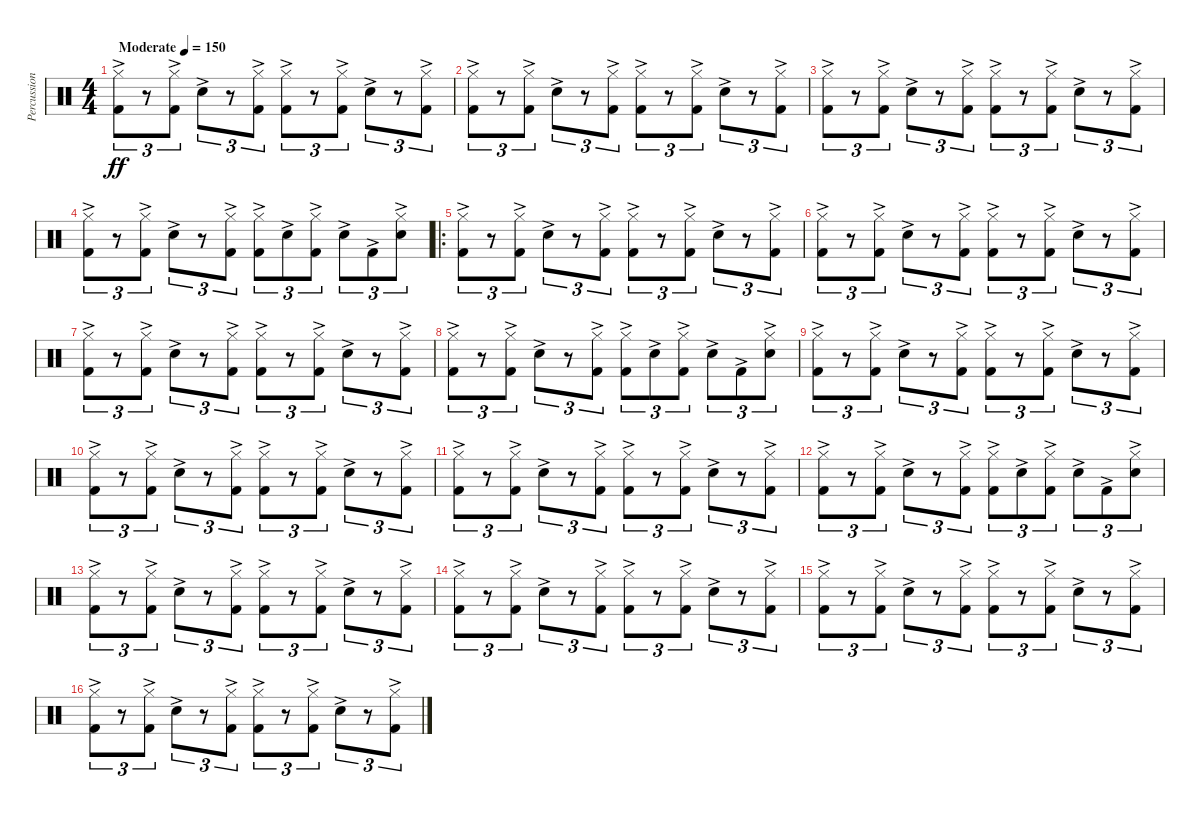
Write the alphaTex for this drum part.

\track ("Percussion" "Percussion") {instrument percussion}
\staff {score}
\articulation defaults
\ts (4 4)
\tempo (150 "Moderate")
\clef neutral
\ks c
("Hi-Hat (closed)"{ac} "Kick (hit) 2"{ac}).8{tu (3 2) dy ff} r.8{tu (3 2)} ("Hi-Hat (closed)"{ac} "Kick (hit) 2"{ac}).8{tu (3 2)} "Snare (hit) 2"{ac}.8{tu (3 2)} r.8{tu (3 2)} ("Hi-Hat (closed)"{ac} "Kick (hit) 2"{ac}).8{tu (3 2)} ("Hi-Hat (closed)"{ac} "Kick (hit) 2"{ac}).8{tu (3 2)} r.8{tu (3 2)} ("Hi-Hat (closed)"{ac} "Kick (hit) 2"{ac}).8{tu (3 2)} "Snare (hit) 2"{ac}.8{tu (3 2)} r.8{tu (3 2)} ("Hi-Hat (closed)"{ac} "Kick (hit) 2"{ac}).8{tu (3 2)} |
("Hi-Hat (closed)"{ac} "Kick (hit) 2"{ac}).8{tu (3 2)} r.8{tu (3 2)} ("Hi-Hat (closed)"{ac} "Kick (hit) 2"{ac}).8{tu (3 2)} "Snare (hit) 2"{ac}.8{tu (3 2)} r.8{tu (3 2)} ("Hi-Hat (closed)"{ac} "Kick (hit) 2"{ac}).8{tu (3 2)} ("Hi-Hat (closed)"{ac} "Kick (hit) 2"{ac}).8{tu (3 2)} r.8{tu (3 2)} ("Hi-Hat (closed)"{ac} "Kick (hit) 2"{ac}).8{tu (3 2)} "Snare (hit) 2"{ac}.8{tu (3 2)} r.8{tu (3 2)} ("Hi-Hat (closed)"{ac} "Kick (hit) 2"{ac}).8{tu (3 2)} |
("Hi-Hat (closed)"{ac} "Kick (hit) 2"{ac}).8{tu (3 2)} r.8{tu (3 2)} ("Hi-Hat (closed)"{ac} "Kick (hit) 2"{ac}).8{tu (3 2)} "Snare (hit) 2"{ac}.8{tu (3 2)} r.8{tu (3 2)} ("Hi-Hat (closed)"{ac} "Kick (hit) 2"{ac}).8{tu (3 2)} ("Hi-Hat (closed)"{ac} "Kick (hit) 2"{ac}).8{tu (3 2)} r.8{tu (3 2)} ("Hi-Hat (closed)"{ac} "Kick (hit) 2"{ac}).8{tu (3 2)} "Snare (hit) 2"{ac}.8{tu (3 2)} r.8{tu (3 2)} ("Hi-Hat (closed)"{ac} "Kick (hit) 2"{ac}).8{tu (3 2)} |
("Hi-Hat (closed)"{ac} "Kick (hit) 2"{ac}).8{tu (3 2)} r.8{tu (3 2)} ("Hi-Hat (closed)"{ac} "Kick (hit) 2"{ac}).8{tu (3 2)} "Snare (hit) 2"{ac}.8{tu (3 2)} r.8{tu (3 2)} ("Hi-Hat (closed)"{ac} "Kick (hit) 2"{ac}).8{tu (3 2)} ("Hi-Hat (closed)"{ac} "Kick (hit) 2"{ac}).8{tu (3 2)} "Snare (hit) 2"{ac}.8{tu (3 2)} ("Hi-Hat (closed)"{ac} "Kick (hit) 2"{ac}).8{tu (3 2)} "Snare (hit) 2"{ac}.8{tu (3 2)} "Kick (hit) 2"{ac}.8{tu (3 2)} ("Hi-Hat (closed)"{ac} "Snare (hit) 2"{ac}).8{tu (3 2)} |
\ro
("Hi-Hat (closed)"{ac} "Kick (hit) 2"{ac}).8{tu (3 2)} r.8{tu (3 2)} ("Hi-Hat (closed)"{ac} "Kick (hit) 2"{ac}).8{tu (3 2)} "Snare (hit) 2"{ac}.8{tu (3 2)} r.8{tu (3 2)} ("Hi-Hat (closed)"{ac} "Kick (hit) 2"{ac}).8{tu (3 2)} ("Hi-Hat (closed)"{ac} "Kick (hit) 2"{ac}).8{tu (3 2)} r.8{tu (3 2)} ("Hi-Hat (closed)"{ac} "Kick (hit) 2"{ac}).8{tu (3 2)} "Snare (hit) 2"{ac}.8{tu (3 2)} r.8{tu (3 2)} ("Hi-Hat (closed)"{ac} "Kick (hit) 2"{ac}).8{tu (3 2)} |
("Hi-Hat (closed)"{ac} "Kick (hit) 2"{ac}).8{tu (3 2)} r.8{tu (3 2)} ("Hi-Hat (closed)"{ac} "Kick (hit) 2"{ac}).8{tu (3 2)} "Snare (hit) 2"{ac}.8{tu (3 2)} r.8{tu (3 2)} ("Hi-Hat (closed)"{ac} "Kick (hit) 2"{ac}).8{tu (3 2)} ("Hi-Hat (closed)"{ac} "Kick (hit) 2"{ac}).8{tu (3 2)} r.8{tu (3 2)} ("Hi-Hat (closed)"{ac} "Kick (hit) 2"{ac}).8{tu (3 2)} "Snare (hit) 2"{ac}.8{tu (3 2)} r.8{tu (3 2)} ("Hi-Hat (closed)"{ac} "Kick (hit) 2"{ac}).8{tu (3 2)} |
("Hi-Hat (closed)"{ac} "Kick (hit) 2"{ac}).8{tu (3 2)} r.8{tu (3 2)} ("Hi-Hat (closed)"{ac} "Kick (hit) 2"{ac}).8{tu (3 2)} "Snare (hit) 2"{ac}.8{tu (3 2)} r.8{tu (3 2)} ("Hi-Hat (closed)"{ac} "Kick (hit) 2"{ac}).8{tu (3 2)} ("Hi-Hat (closed)"{ac} "Kick (hit) 2"{ac}).8{tu (3 2)} r.8{tu (3 2)} ("Hi-Hat (closed)"{ac} "Kick (hit) 2"{ac}).8{tu (3 2)} "Snare (hit) 2"{ac}.8{tu (3 2)} r.8{tu (3 2)} ("Hi-Hat (closed)"{ac} "Kick (hit) 2"{ac}).8{tu (3 2)} |
("Hi-Hat (closed)"{ac} "Kick (hit) 2"{ac}).8{tu (3 2)} r.8{tu (3 2)} ("Hi-Hat (closed)"{ac} "Kick (hit) 2"{ac}).8{tu (3 2)} "Snare (hit) 2"{ac}.8{tu (3 2)} r.8{tu (3 2)} ("Hi-Hat (closed)"{ac} "Kick (hit) 2"{ac}).8{tu (3 2)} ("Hi-Hat (closed)"{ac} "Kick (hit) 2"{ac}).8{tu (3 2)} "Snare (hit) 2"{ac}.8{tu (3 2)} ("Hi-Hat (closed)"{ac} "Kick (hit) 2"{ac}).8{tu (3 2)} "Snare (hit) 2"{ac}.8{tu (3 2)} "Kick (hit) 2"{ac}.8{tu (3 2)} ("Hi-Hat (closed)"{ac} "Snare (hit) 2"{ac}).8{tu (3 2)} |
("Hi-Hat (closed)"{ac} "Kick (hit) 2"{ac}).8{tu (3 2)} r.8{tu (3 2)} ("Hi-Hat (closed)"{ac} "Kick (hit) 2"{ac}).8{tu (3 2)} "Snare (hit) 2"{ac}.8{tu (3 2)} r.8{tu (3 2)} ("Hi-Hat (closed)"{ac} "Kick (hit) 2"{ac}).8{tu (3 2)} ("Hi-Hat (closed)"{ac} "Kick (hit) 2"{ac}).8{tu (3 2)} r.8{tu (3 2)} ("Hi-Hat (closed)"{ac} "Kick (hit) 2"{ac}).8{tu (3 2)} "Snare (hit) 2"{ac}.8{tu (3 2)} r.8{tu (3 2)} ("Hi-Hat (closed)"{ac} "Kick (hit) 2"{ac}).8{tu (3 2)} |
("Hi-Hat (closed)"{ac} "Kick (hit) 2"{ac}).8{tu (3 2)} r.8{tu (3 2)} ("Hi-Hat (closed)"{ac} "Kick (hit) 2"{ac}).8{tu (3 2)} "Snare (hit) 2"{ac}.8{tu (3 2)} r.8{tu (3 2)} ("Hi-Hat (closed)"{ac} "Kick (hit) 2"{ac}).8{tu (3 2)} ("Hi-Hat (closed)"{ac} "Kick (hit) 2"{ac}).8{tu (3 2)} r.8{tu (3 2)} ("Hi-Hat (closed)"{ac} "Kick (hit) 2"{ac}).8{tu (3 2)} "Snare (hit) 2"{ac}.8{tu (3 2)} r.8{tu (3 2)} ("Hi-Hat (closed)"{ac} "Kick (hit) 2"{ac}).8{tu (3 2)} |
("Hi-Hat (closed)"{ac} "Kick (hit) 2"{ac}).8{tu (3 2)} r.8{tu (3 2)} ("Hi-Hat (closed)"{ac} "Kick (hit) 2"{ac}).8{tu (3 2)} "Snare (hit) 2"{ac}.8{tu (3 2)} r.8{tu (3 2)} ("Hi-Hat (closed)"{ac} "Kick (hit) 2"{ac}).8{tu (3 2)} ("Hi-Hat (closed)"{ac} "Kick (hit) 2"{ac}).8{tu (3 2)} r.8{tu (3 2)} ("Hi-Hat (closed)"{ac} "Kick (hit) 2"{ac}).8{tu (3 2)} "Snare (hit) 2"{ac}.8{tu (3 2)} r.8{tu (3 2)} ("Hi-Hat (closed)"{ac} "Kick (hit) 2"{ac}).8{tu (3 2)} |
("Hi-Hat (closed)"{ac} "Kick (hit) 2"{ac}).8{tu (3 2)} r.8{tu (3 2)} ("Hi-Hat (closed)"{ac} "Kick (hit) 2"{ac}).8{tu (3 2)} "Snare (hit) 2"{ac}.8{tu (3 2)} r.8{tu (3 2)} ("Hi-Hat (closed)"{ac} "Kick (hit) 2"{ac}).8{tu (3 2)} ("Hi-Hat (closed)"{ac} "Kick (hit) 2"{ac}).8{tu (3 2)} "Snare (hit) 2"{ac}.8{tu (3 2)} ("Hi-Hat (closed)"{ac} "Kick (hit) 2"{ac}).8{tu (3 2)} "Snare (hit) 2"{ac}.8{tu (3 2)} "Kick (hit) 2"{ac}.8{tu (3 2)} ("Hi-Hat (closed)"{ac} "Snare (hit) 2"{ac}).8{tu (3 2)} |
("Hi-Hat (closed)"{ac} "Kick (hit) 2"{ac}).8{tu (3 2)} r.8{tu (3 2)} ("Hi-Hat (closed)"{ac} "Kick (hit) 2"{ac}).8{tu (3 2)} "Snare (hit) 2"{ac}.8{tu (3 2)} r.8{tu (3 2)} ("Hi-Hat (closed)"{ac} "Kick (hit) 2"{ac}).8{tu (3 2)} ("Hi-Hat (closed)"{ac} "Kick (hit) 2"{ac}).8{tu (3 2)} r.8{tu (3 2)} ("Hi-Hat (closed)"{ac} "Kick (hit) 2"{ac}).8{tu (3 2)} "Snare (hit) 2"{ac}.8{tu (3 2)} r.8{tu (3 2)} ("Hi-Hat (closed)"{ac} "Kick (hit) 2"{ac}).8{tu (3 2)} |
("Hi-Hat (closed)"{ac} "Kick (hit) 2"{ac}).8{tu (3 2)} r.8{tu (3 2)} ("Hi-Hat (closed)"{ac} "Kick (hit) 2"{ac}).8{tu (3 2)} "Snare (hit) 2"{ac}.8{tu (3 2)} r.8{tu (3 2)} ("Hi-Hat (closed)"{ac} "Kick (hit) 2"{ac}).8{tu (3 2)} ("Hi-Hat (closed)"{ac} "Kick (hit) 2"{ac}).8{tu (3 2)} r.8{tu (3 2)} ("Hi-Hat (closed)"{ac} "Kick (hit) 2"{ac}).8{tu (3 2)} "Snare (hit) 2"{ac}.8{tu (3 2)} r.8{tu (3 2)} ("Hi-Hat (closed)"{ac} "Kick (hit) 2"{ac}).8{tu (3 2)} |
("Hi-Hat (closed)"{ac} "Kick (hit) 2"{ac}).8{tu (3 2)} r.8{tu (3 2)} ("Hi-Hat (closed)"{ac} "Kick (hit) 2"{ac}).8{tu (3 2)} "Snare (hit) 2"{ac}.8{tu (3 2)} r.8{tu (3 2)} ("Hi-Hat (closed)"{ac} "Kick (hit) 2"{ac}).8{tu (3 2)} ("Hi-Hat (closed)"{ac} "Kick (hit) 2"{ac}).8{tu (3 2)} r.8{tu (3 2)} ("Hi-Hat (closed)"{ac} "Kick (hit) 2"{ac}).8{tu (3 2)} "Snare (hit) 2"{ac}.8{tu (3 2)} r.8{tu (3 2)} ("Hi-Hat (closed)"{ac} "Kick (hit) 2"{ac}).8{tu (3 2)} |
("Hi-Hat (closed)"{ac} "Kick (hit) 2"{ac}).8{tu (3 2)} r.8{tu (3 2)} ("Hi-Hat (closed)"{ac} "Kick (hit) 2"{ac}).8{tu (3 2)} "Snare (hit) 2"{ac}.8{tu (3 2)} r.8{tu (3 2)} ("Hi-Hat (closed)"{ac} "Kick (hit) 2"{ac}).8{tu (3 2)} ("Hi-Hat (closed)"{ac} "Kick (hit) 2"{ac}).8{tu (3 2)} r.8{tu (3 2)} ("Hi-Hat (closed)"{ac} "Kick (hit) 2"{ac}).8{tu (3 2)} "Snare (hit) 2"{ac}.8{tu (3 2)} r.8{tu (3 2)} ("Hi-Hat (closed)"{ac} "Kick (hit) 2"{ac}).8{tu (3 2)}
